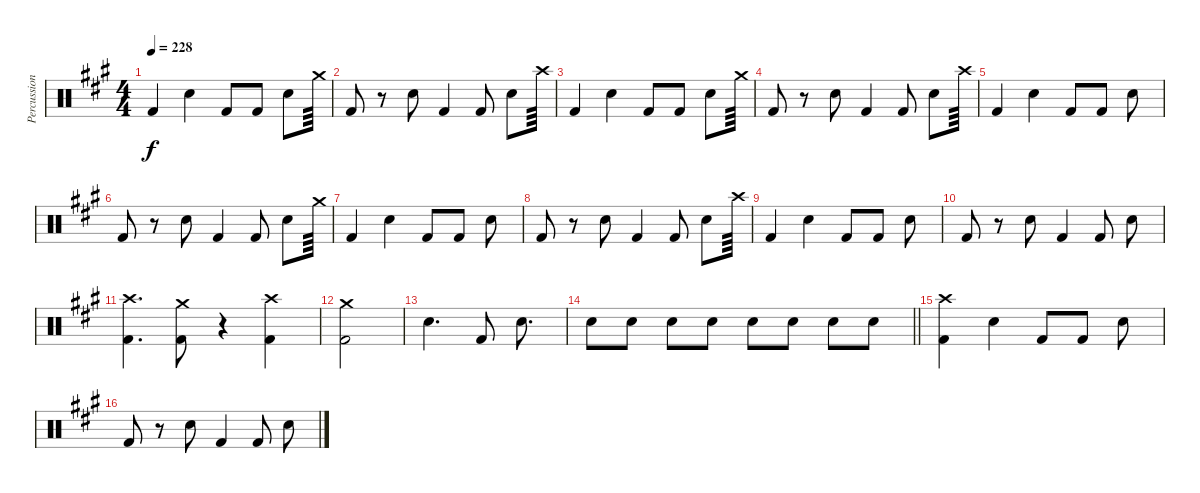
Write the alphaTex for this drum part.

\track ("Percussion" "Percussion") {instrument percussion}
\staff {score}
\articulation defaults
\ts (4 4)
\tempo 228
\clef neutral
\ks a "Kick (hit) 2".4{dy f} "Snare (hit) 2".4 "Kick (hit) 2".8 "Kick (hit) 2".8 "Snare (hit) 2".8 "Crash medium (hit)".64
|
"Kick (hit) 2".8 r.8 "Snare (hit) 2".8 "Kick (hit) 2".4 "Kick (hit) 2".8 "Snare (hit) 2".8 "Crash high (hit)".64 |
"Kick (hit) 2".4 "Snare (hit) 2".4 "Kick (hit) 2".8 "Kick (hit) 2".8 "Snare (hit) 2".8 "Crash medium (hit)".64 |
"Kick (hit) 2".8 r.8 "Snare (hit) 2".8 "Kick (hit) 2".4 "Kick (hit) 2".8 "Snare (hit) 2".8 "Crash high (hit)".64 |
"Kick (hit) 2".4 "Snare (hit) 2".4 "Kick (hit) 2".8 "Kick (hit) 2".8 "Snare (hit) 2".8 |
"Kick (hit) 2".8 r.8 "Snare (hit) 2".8 "Kick (hit) 2".4 "Kick (hit) 2".8 "Snare (hit) 2".8 "Crash medium (hit)".64 |
"Kick (hit) 2".4 "Snare (hit) 2".4 "Kick (hit) 2".8 "Kick (hit) 2".8 "Snare (hit) 2".8 |
"Kick (hit) 2".8 r.8 "Snare (hit) 2".8 "Kick (hit) 2".4 "Kick (hit) 2".8 "Snare (hit) 2".8 "Crash high (hit)".64 |
"Kick (hit) 2".4 "Snare (hit) 2".4 "Kick (hit) 2".8 "Kick (hit) 2".8 "Snare (hit) 2".8 |
"Kick (hit) 2".8 r.8 "Snare (hit) 2".8 "Kick (hit) 2".4 "Kick (hit) 2".8 "Snare (hit) 2".8 |
("Crash high (hit)" "Kick (hit) 2").4{d} ("Crash medium (hit)" "Kick (hit) 2").8 r.4 ("Crash high (hit)" "Kick (hit) 2").4 |
("Crash medium (hit)" "Kick (hit) 2").2 |
"Snare (hit) 2".4{d} "Kick (hit) 2".8 "Snare (hit) 2".8{d} |
\barLineRight lightlight "Snare (hit) 2".8 "Snare (hit) 2".8 "Snare (hit) 2".8 "Snare (hit) 2".8 "Snare (hit) 2".8 "Snare (hit) 2".8 "Snare (hit) 2".8 "Snare (hit) 2".8
|
("Kick (hit) 2" "Crash high (hit)").4 "Snare (hit) 2".4 "Kick (hit) 2".8 "Kick (hit) 2".8 "Snare (hit) 2".8 |
"Kick (hit) 2".8 r.8 "Snare (hit) 2".8 "Kick (hit) 2".4 "Kick (hit) 2".8 "Snare (hit) 2".8
